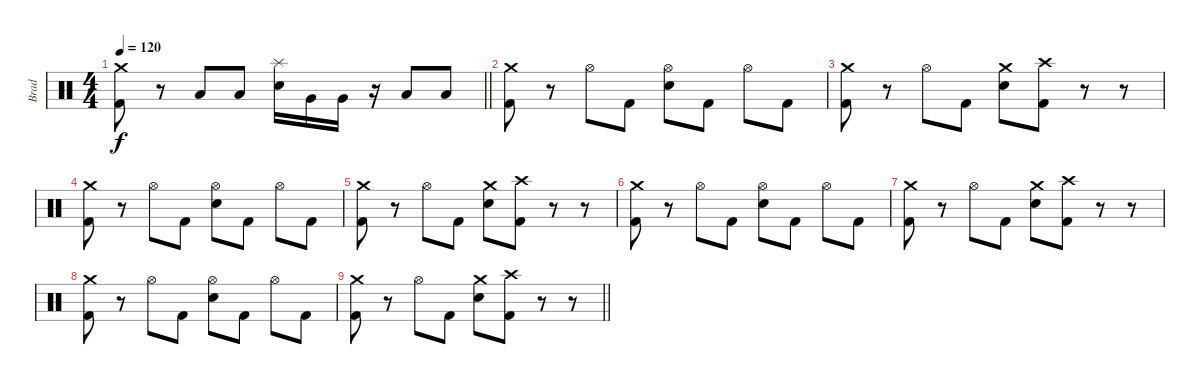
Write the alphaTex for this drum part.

\track ("Brad" "Brad") {instrument percussion}
\staff {score}
\articulation defaults
\ts (4 4)
\tempo 120
\clef neutral
\barLineRight lightlight
\ks c
("Crash medium (hit)" "Kick (hit) 2").8{dy f} r.8 "Low Tom (hit)".8 "Low Tom (hit)".8 ("Splash (hit)" "Electric Snare (hit)").16 "Very Low Tom (hit)".16 "Very Low Tom (hit)".16 r.16 "Low Tom (hit)".8 "Low Tom (hit)".8 |
("Crash medium (hit)" "Kick (hit) 2").8 r.8 "Hi-Hat (open)".8 "Kick (hit) 2".8 ("Hi-Hat (open)" "Electric Snare (hit)").8 "Kick (hit) 2".8 "Hi-Hat (open)".8 "Kick (hit) 2".8 |
("Crash medium (hit)" "Kick (hit) 2").8 r.8 "Hi-Hat (open)".8 "Kick (hit) 2".8 ("Crash medium (hit)" "Electric Snare (hit)").8 ("Crash high (hit)" "Kick (hit) 2").8 r.8 r.8 |
("Crash medium (hit)" "Kick (hit) 2").8 r.8 "Hi-Hat (open)".8 "Kick (hit) 2".8 ("Hi-Hat (open)" "Electric Snare (hit)").8 "Kick (hit) 2".8 "Hi-Hat (open)".8 "Kick (hit) 2".8 |
("Crash medium (hit)" "Kick (hit) 2").8 r.8 "Hi-Hat (open)".8 "Kick (hit) 2".8 ("Crash medium (hit)" "Electric Snare (hit)").8 ("Crash high (hit)" "Kick (hit) 2").8 r.8 r.8 |
("Crash medium (hit)" "Kick (hit) 2").8 r.8 "Hi-Hat (open)".8 "Kick (hit) 2".8 ("Hi-Hat (open)" "Electric Snare (hit)").8 "Kick (hit) 2".8 "Hi-Hat (open)".8 "Kick (hit) 2".8 |
("Crash medium (hit)" "Kick (hit) 2").8 r.8 "Hi-Hat (open)".8 "Kick (hit) 2".8 ("Crash medium (hit)" "Electric Snare (hit)").8 ("Crash high (hit)" "Kick (hit) 2").8 r.8 r.8 |
("Crash medium (hit)" "Kick (hit) 2").8 r.8 "Hi-Hat (open)".8 "Kick (hit) 2".8 ("Hi-Hat (open)" "Electric Snare (hit)").8 "Kick (hit) 2".8 "Hi-Hat (open)".8 "Kick (hit) 2".8 |
\barLineRight lightlight
("Crash medium (hit)" "Kick (hit) 2").8 r.8 "Hi-Hat (open)".8 "Kick (hit) 2".8 ("Crash medium (hit)" "Electric Snare (hit)").8 ("Crash high (hit)" "Kick (hit) 2").8 r.8 r.8
